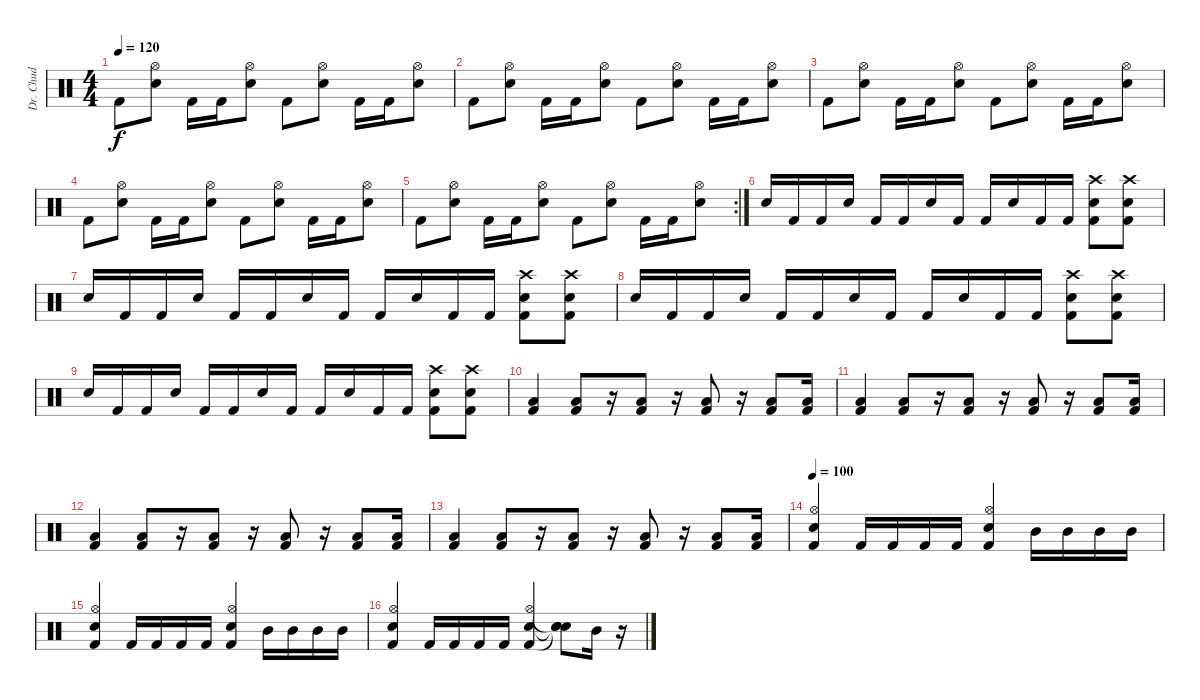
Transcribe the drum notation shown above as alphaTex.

\track ("Dr. Chud" "Dr. Chud") {instrument percussion}
\staff {score}
\articulation defaults
\ts (4 4)
\tempo 120
\clef neutral
\ks c "Kick (hit) 2".8{dy f}
("Hi-Hat (open)" "Snare (hit) 2").8 "Kick (hit) 2".16 "Kick (hit) 2".16 ("Hi-Hat (open)" "Snare (hit) 2").8 "Kick (hit) 2".8 ("Hi-Hat (open)" "Snare (hit) 2").8 "Kick (hit) 2".16 "Kick (hit) 2".16 ("Hi-Hat (open)" "Snare (hit) 2").8 |
"Kick (hit) 2".8 ("Hi-Hat (open)" "Snare (hit) 2").8 "Kick (hit) 2".16 "Kick (hit) 2".16 ("Hi-Hat (open)" "Snare (hit) 2").8 "Kick (hit) 2".8 ("Hi-Hat (open)" "Snare (hit) 2").8 "Kick (hit) 2".16 "Kick (hit) 2".16 ("Hi-Hat (open)" "Snare (hit) 2").8 |
"Kick (hit) 2".8 ("Hi-Hat (open)" "Snare (hit) 2").8 "Kick (hit) 2".16 "Kick (hit) 2".16 ("Hi-Hat (open)" "Snare (hit) 2").8 "Kick (hit) 2".8 ("Hi-Hat (open)" "Snare (hit) 2").8 "Kick (hit) 2".16 "Kick (hit) 2".16 ("Hi-Hat (open)" "Snare (hit) 2").8 |
"Kick (hit) 2".8 ("Hi-Hat (open)" "Snare (hit) 2").8 "Kick (hit) 2".16 "Kick (hit) 2".16 ("Hi-Hat (open)" "Snare (hit) 2").8 "Kick (hit) 2".8 ("Hi-Hat (open)" "Snare (hit) 2").8 "Kick (hit) 2".16 "Kick (hit) 2".16 ("Hi-Hat (open)" "Snare (hit) 2").8 |
\rc 2 "Kick (hit) 2".8
("Hi-Hat (open)" "Snare (hit) 2").8 "Kick (hit) 2".16 "Kick (hit) 2".16 ("Hi-Hat (open)" "Snare (hit) 2").8 "Kick (hit) 2".8 ("Hi-Hat (open)" "Snare (hit) 2").8 "Kick (hit) 2".16 "Kick (hit) 2".16 ("Hi-Hat (open)" "Snare (hit) 2").8 |
"Snare (hit) 2".16 "Kick (hit) 2".16 "Kick (hit) 2".16 "Snare (hit) 2".16 "Kick (hit) 2".16 "Kick (hit) 2".16 "Snare (hit) 2".16 "Kick (hit) 2".16 "Kick (hit) 2".16 "Snare (hit) 2".16 "Kick (hit) 2".16 "Kick (hit) 2".16 ("Crash high (hit)" "Snare (hit) 2" "Kick (hit) 2").8 ("Crash high (hit)" "Snare (hit) 2" "Kick (hit) 2").8 |
"Snare (hit) 2".16 "Kick (hit) 2".16 "Kick (hit) 2".16 "Snare (hit) 2".16 "Kick (hit) 2".16 "Kick (hit) 2".16 "Snare (hit) 2".16 "Kick (hit) 2".16 "Kick (hit) 2".16 "Snare (hit) 2".16 "Kick (hit) 2".16 "Kick (hit) 2".16 ("Crash high (hit)" "Snare (hit) 2" "Kick (hit) 2").8 ("Crash high (hit)" "Snare (hit) 2" "Kick (hit) 2").8 |
"Snare (hit) 2".16 "Kick (hit) 2".16 "Kick (hit) 2".16 "Snare (hit) 2".16 "Kick (hit) 2".16 "Kick (hit) 2".16 "Snare (hit) 2".16 "Kick (hit) 2".16 "Kick (hit) 2".16 "Snare (hit) 2".16 "Kick (hit) 2".16 "Kick (hit) 2".16 ("Crash high (hit)" "Snare (hit) 2" "Kick (hit) 2").8 ("Crash high (hit)" "Snare (hit) 2" "Kick (hit) 2").8 |
"Snare (hit) 2".16 "Kick (hit) 2".16 "Kick (hit) 2".16 "Snare (hit) 2".16 "Kick (hit) 2".16 "Kick (hit) 2".16 "Snare (hit) 2".16 "Kick (hit) 2".16 "Kick (hit) 2".16 "Snare (hit) 2".16 "Kick (hit) 2".16 "Kick (hit) 2".16 ("Crash high (hit)" "Snare (hit) 2" "Kick (hit) 2").8 ("Crash high (hit)" "Snare (hit) 2" "Kick (hit) 2").8 |
("Low Floor Tom (hit)" "Kick (hit) 2").4 ("Low Floor Tom (hit)" "Kick (hit) 2").8 r.16 ("Low Floor Tom (hit)" "Kick (hit) 2").8 r.16 ("Low Floor Tom (hit)" "Kick (hit) 2").8 r.16 ("Low Floor Tom (hit)" "Kick (hit) 2").8 ("Low Floor Tom (hit)" "Kick (hit) 2").16 |
("Low Floor Tom (hit)" "Kick (hit) 2").4 ("Low Floor Tom (hit)" "Kick (hit) 2").8 r.16 ("Low Floor Tom (hit)" "Kick (hit) 2").8 r.16 ("Low Floor Tom (hit)" "Kick (hit) 2").8 r.16 ("Low Floor Tom (hit)" "Kick (hit) 2").8 ("Low Floor Tom (hit)" "Kick (hit) 2").16 |
("Low Floor Tom (hit)" "Kick (hit) 2").4 ("Low Floor Tom (hit)" "Kick (hit) 2").8 r.16 ("Low Floor Tom (hit)" "Kick (hit) 2").8 r.16 ("Low Floor Tom (hit)" "Kick (hit) 2").8 r.16 ("Low Floor Tom (hit)" "Kick (hit) 2").8 ("Low Floor Tom (hit)" "Kick (hit) 2").16 |
("Low Floor Tom (hit)" "Kick (hit) 2").4 ("Low Floor Tom (hit)" "Kick (hit) 2").8 r.16 ("Low Floor Tom (hit)" "Kick (hit) 2").8 r.16 ("Low Floor Tom (hit)" "Kick (hit) 2").8 r.16 ("Low Floor Tom (hit)" "Kick (hit) 2").8 ("Low Floor Tom (hit)" "Kick (hit) 2").16 |
\tempo 100
("Hi-Hat (open)" "Snare (hit) 2" "Kick (hit) 2").4 "Kick (hit) 2".16 "Kick (hit) 2".16 "Kick (hit) 2".16 "Kick (hit) 2".16 ("Hi-Hat (open)" "Snare (hit) 2" "Kick (hit) 2").4 "Mid Tom (hit)".16 "Mid Tom (hit)".16 "Mid Tom (hit)".16 "Mid Tom (hit)".16 |
("Hi-Hat (open)" "Snare (hit) 2" "Kick (hit) 2").4 "Kick (hit) 2".16 "Kick (hit) 2".16 "Kick (hit) 2".16 "Kick (hit) 2".16 ("Hi-Hat (open)" "Snare (hit) 2" "Kick (hit) 2").4 "Mid Tom (hit)".16 "Mid Tom (hit)".16 "Mid Tom (hit)".16 "Mid Tom (hit)".16 |
("Hi-Hat (open)" "Snare (hit) 2" "Kick (hit) 2").4 "Kick (hit) 2".16 "Kick (hit) 2".16 "Kick (hit) 2".16 "Kick (hit) 2".16 ("Hi-Hat (open)" "Snare (hit) 2" "Kick (hit) 2").4 ("Snare (hit)"{t} "Snare (hit)"{t} "Snare (hit)"{t}).8 "Mid Tom (hit)".16 r.16
